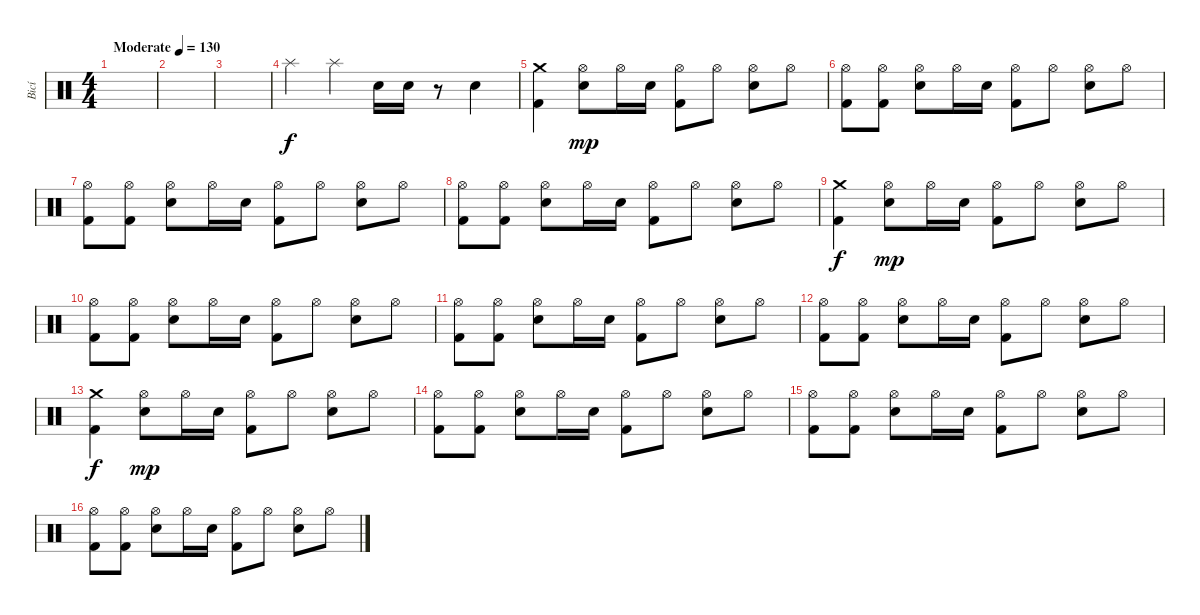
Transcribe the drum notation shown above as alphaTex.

\track ("Bicí" "Bicí") {instrument percussion}
\staff {score}
\articulation defaults
\ts (4 4)
\tempo (130 "Moderate")
\clef neutral
\ks c
|
|
|
"Splash (hit)".4 "Splash (hit)".4 "Electric Snare (hit)".16 "Electric Snare (hit)".16 r.8 "Electric Snare (hit)".4 |
("Crash medium (hit)" "Kick (hit) 2").4 ("Hi-Hat (open)" "Electric Snare (hit)").8{dy mp} "Hi-Hat (open)".16 "Electric Snare (hit)".16 ("Hi-Hat (open)" "Kick (hit) 2").8 "Hi-Hat (open)".8 ("Hi-Hat (open)" "Electric Snare (hit)").8 "Hi-Hat (open)".8 |
("Hi-Hat (open)" "Kick (hit) 2").8 ("Hi-Hat (open)" "Kick (hit) 2").8 ("Hi-Hat (open)" "Electric Snare (hit)").8 "Hi-Hat (open)".16 "Electric Snare (hit)".16 ("Hi-Hat (open)" "Kick (hit) 2").8 "Hi-Hat (open)".8 ("Hi-Hat (open)" "Electric Snare (hit)").8 "Hi-Hat (open)".8 |
("Hi-Hat (open)" "Kick (hit) 2").8 ("Hi-Hat (open)" "Kick (hit) 2").8 ("Hi-Hat (open)" "Electric Snare (hit)").8 "Hi-Hat (open)".16 "Electric Snare (hit)".16 ("Hi-Hat (open)" "Kick (hit) 2").8 "Hi-Hat (open)".8 ("Hi-Hat (open)" "Electric Snare (hit)").8 "Hi-Hat (open)".8 |
("Hi-Hat (open)" "Kick (hit) 2").8 ("Hi-Hat (open)" "Kick (hit) 2").8 ("Hi-Hat (open)" "Electric Snare (hit)").8 "Hi-Hat (open)".16 "Electric Snare (hit)".16 ("Hi-Hat (open)" "Kick (hit) 2").8 "Hi-Hat (open)".8 ("Hi-Hat (open)" "Electric Snare (hit)").8 "Hi-Hat (open)".8 |
("Crash medium (hit)" "Kick (hit) 2").4{dy f} ("Hi-Hat (open)" "Electric Snare (hit)").8{dy mp} "Hi-Hat (open)".16 "Electric Snare (hit)".16 ("Hi-Hat (open)" "Kick (hit) 2").8 "Hi-Hat (open)".8 ("Hi-Hat (open)" "Electric Snare (hit)").8 "Hi-Hat (open)".8 |
("Hi-Hat (open)" "Kick (hit) 2").8 ("Hi-Hat (open)" "Kick (hit) 2").8 ("Hi-Hat (open)" "Electric Snare (hit)").8 "Hi-Hat (open)".16 "Electric Snare (hit)".16 ("Hi-Hat (open)" "Kick (hit) 2").8 "Hi-Hat (open)".8 ("Hi-Hat (open)" "Electric Snare (hit)").8 "Hi-Hat (open)".8 |
("Hi-Hat (open)" "Kick (hit) 2").8 ("Hi-Hat (open)" "Kick (hit) 2").8 ("Hi-Hat (open)" "Electric Snare (hit)").8 "Hi-Hat (open)".16 "Electric Snare (hit)".16 ("Hi-Hat (open)" "Kick (hit) 2").8 "Hi-Hat (open)".8 ("Hi-Hat (open)" "Electric Snare (hit)").8 "Hi-Hat (open)".8 |
("Hi-Hat (open)" "Kick (hit) 2").8 ("Hi-Hat (open)" "Kick (hit) 2").8 ("Hi-Hat (open)" "Electric Snare (hit)").8 "Hi-Hat (open)".16 "Electric Snare (hit)".16 ("Hi-Hat (open)" "Kick (hit) 2").8 "Hi-Hat (open)".8 ("Hi-Hat (open)" "Electric Snare (hit)").8 "Hi-Hat (open)".8 |
("Crash medium (hit)" "Kick (hit) 2").4{dy f} ("Hi-Hat (open)" "Electric Snare (hit)").8{dy mp} "Hi-Hat (open)".16 "Electric Snare (hit)".16 ("Hi-Hat (open)" "Kick (hit) 2").8 "Hi-Hat (open)".8 ("Hi-Hat (open)" "Electric Snare (hit)").8 "Hi-Hat (open)".8 |
("Hi-Hat (open)" "Kick (hit) 2").8 ("Hi-Hat (open)" "Kick (hit) 2").8 ("Hi-Hat (open)" "Electric Snare (hit)").8 "Hi-Hat (open)".16 "Electric Snare (hit)".16 ("Hi-Hat (open)" "Kick (hit) 2").8 "Hi-Hat (open)".8 ("Hi-Hat (open)" "Electric Snare (hit)").8 "Hi-Hat (open)".8 |
("Hi-Hat (open)" "Kick (hit) 2").8 ("Hi-Hat (open)" "Kick (hit) 2").8 ("Hi-Hat (open)" "Electric Snare (hit)").8 "Hi-Hat (open)".16 "Electric Snare (hit)".16 ("Hi-Hat (open)" "Kick (hit) 2").8 "Hi-Hat (open)".8 ("Hi-Hat (open)" "Electric Snare (hit)").8 "Hi-Hat (open)".8 |
("Hi-Hat (open)" "Kick (hit) 2").8 ("Hi-Hat (open)" "Kick (hit) 2").8 ("Hi-Hat (open)" "Electric Snare (hit)").8 "Hi-Hat (open)".16 "Electric Snare (hit)".16 ("Hi-Hat (open)" "Kick (hit) 2").8 "Hi-Hat (open)".8 ("Hi-Hat (open)" "Electric Snare (hit)").8 "Hi-Hat (open)".8
